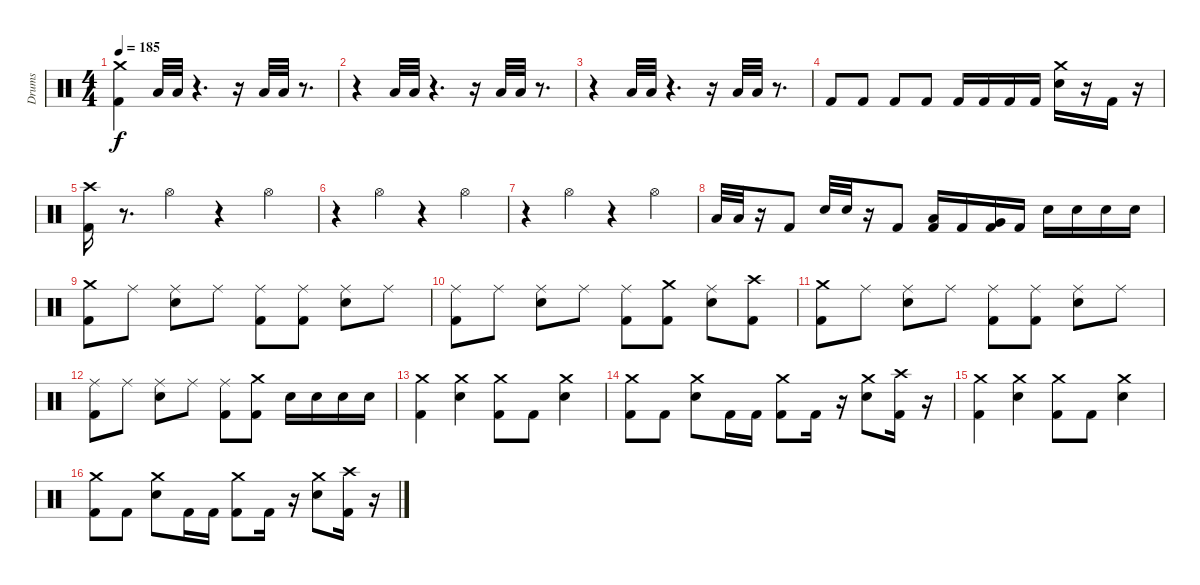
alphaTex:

\track ("Drums" "Drums") {instrument percussion}
\staff {score}
\articulation defaults
\ts (4 4)
\tempo 185
\clef neutral
\ks c
("Kick (hit) 2" "Crash medium (hit)").4{dy f} "Low Floor Tom (hit)".32 "Low Floor Tom (hit)".32 r.4{d} r.16 "Low Floor Tom (hit)".32 "Low Floor Tom (hit)".32 r.8{d} |
r.4 "Low Floor Tom (hit)".32 "Low Floor Tom (hit)".32 r.4{d} r.16 "Low Floor Tom (hit)".32 "Low Floor Tom (hit)".32 r.8{d} |
r.4 "Low Floor Tom (hit)".32 "Low Floor Tom (hit)".32 r.4{d} r.16 "Low Floor Tom (hit)".32 "Low Floor Tom (hit)".32 r.8{d} |
"Kick (hit) 2".8 "Kick (hit) 2".8 "Kick (hit) 2".8 "Kick (hit) 2".8 "Kick (hit) 2".16 "Kick (hit) 2".16 "Kick (hit) 2".16 "Kick (hit) 2".16 ("Crash medium (hit)" "Electric Snare (hit)").16 r.16 "Kick (hit) 2".16 r.16 |
("Crash high (hit)" "Kick (hit) 2").16 r.8{d} "Hi-Hat (open)".4 r.4 "Hi-Hat (open)".4 |
r.4 "Hi-Hat (open)".4 r.4 "Hi-Hat (open)".4 |
r.4 "Hi-Hat (open)".4 r.4 "Hi-Hat (open)".4 |
"Low Tom (hit)".32 "Low Tom (hit)".32 r.16 "Kick (hit) 2".8 "Snare (hit) 2".32 "Electric Snare (hit)".32 r.16 "Kick (hit) 2".8 ("Low Tom (hit)" "Kick (hit) 2").16 "Kick (hit) 2".16 ("Very Low Tom (hit)" "Kick (hit) 2").16 "Kick (hit) 2".16 "Electric Snare (hit)".16 "Electric Snare (hit)".16 "Electric Snare (hit)".16 "Electric Snare (hit)".16 |
("Kick (hit) 2" "Crash medium (hit)").8 "Ride (middle)".8 ("Electric Snare (hit)" "Ride (middle)").8 "Ride (middle)".8 ("Kick (hit) 2" "Ride (middle)").8 ("Kick (hit) 2" "Ride (middle)").8 ("Electric Snare (hit)" "Ride (middle)").8 "Ride (middle)".8 |
("Kick (hit) 2" "Ride (middle)").8 "Ride (middle)".8 ("Electric Snare (hit)" "Ride (middle)").8 "Ride (middle)".8 ("Kick (hit) 2" "Ride (middle)").8 ("Kick (hit) 2" "Crash medium (hit)").8 ("Electric Snare (hit)" "Ride (middle)").8 ("Kick (hit) 2" "Crash high (hit)").8 |
("Kick (hit) 2" "Crash medium (hit)").8 "Ride (middle)".8 ("Electric Snare (hit)" "Ride (middle)").8 "Ride (middle)".8 ("Kick (hit) 2" "Ride (middle)").8 ("Kick (hit) 2" "Ride (middle)").8 ("Electric Snare (hit)" "Ride (middle)").8 "Ride (middle)".8 |
("Kick (hit) 2" "Ride (middle)").8 "Ride (middle)".8 ("Electric Snare (hit)" "Ride (middle)").8 "Ride (middle)".8 ("Kick (hit) 2" "Ride (middle)").8 ("Kick (hit) 2" "Crash medium (hit)").8 "Electric Snare (hit)".16 "Electric Snare (hit)".16 "Electric Snare (hit)".16 "Electric Snare (hit)".16 |
("Kick (hit) 2" "Crash medium (hit)").4 ("Electric Snare (hit)" "Crash medium (hit)").4 ("Kick (hit) 2" "Crash medium (hit)").8 "Kick (hit) 2".8 ("Electric Snare (hit)" "Crash medium (hit)").4 |
("Kick (hit) 2" "Crash medium (hit)").8 "Kick (hit) 2".8 ("Electric Snare (hit)" "Crash medium (hit)").8 "Kick (hit) 2".16 "Kick (hit) 2".16 ("Kick (hit) 2" "Crash medium (hit)").8 "Kick (hit) 2".16 r.16 ("Electric Snare (hit)" "Crash medium (hit)").8 ("Crash high (hit)" "Kick (hit) 2").16 r.16 |
("Kick (hit) 2" "Crash medium (hit)").4 ("Electric Snare (hit)" "Crash medium (hit)").4 ("Kick (hit) 2" "Crash medium (hit)").8 "Kick (hit) 2".8 ("Electric Snare (hit)" "Crash medium (hit)").4 |
("Kick (hit) 2" "Crash medium (hit)").8 "Kick (hit) 2".8 ("Electric Snare (hit)" "Crash medium (hit)").8 "Kick (hit) 2".16 "Kick (hit) 2".16 ("Kick (hit) 2" "Crash medium (hit)").8 "Kick (hit) 2".16 r.16 ("Electric Snare (hit)" "Crash medium (hit)").8 ("Crash high (hit)" "Kick (hit) 2").16 r.16
